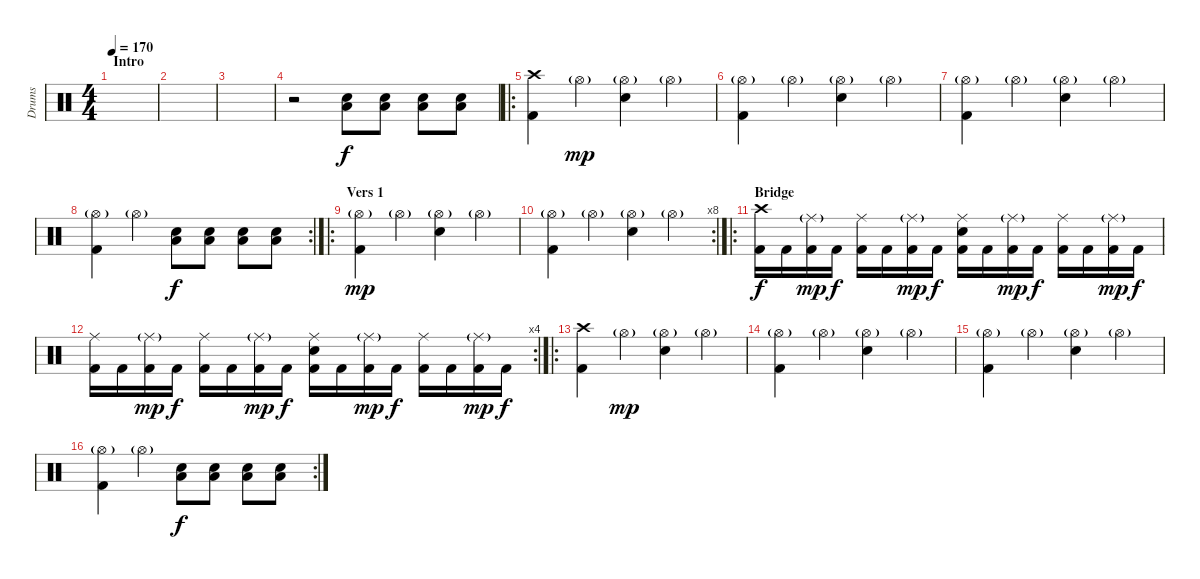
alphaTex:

\track ("Drums" "Drums") {instrument percussion}
\staff {score}
\articulation defaults
\ts (4 4)
\section ("" "Intro")
\tempo 170
\clef neutral
\ks c
|
|
|
r.2 ("Electric Snare (hit)" "Low Tom (hit)").8 ("Electric Snare (hit)" "Low Tom (hit)").8 ("Electric Snare (hit)" "Low Tom (hit)").8 ("Electric Snare (hit)" "Low Tom (hit)").8 |
\ro
("Crash high (hit)" "Kick (hit) 2").4 "Hi-Hat (open)"{g}.4{dy mp} ("Hi-Hat (open)"{g} "Electric Snare (hit)").4 "Hi-Hat (open)"{g}.4 |
("Hi-Hat (open)"{g} "Kick (hit) 2").4 "Hi-Hat (open)"{g}.4 ("Hi-Hat (open)"{g} "Electric Snare (hit)").4 "Hi-Hat (open)"{g}.4 |
("Hi-Hat (open)"{g} "Kick (hit) 2").4 "Hi-Hat (open)"{g}.4 ("Hi-Hat (open)"{g} "Electric Snare (hit)").4 "Hi-Hat (open)"{g}.4 |
\rc 2
("Hi-Hat (open)"{g} "Kick (hit) 2").4 "Hi-Hat (open)"{g}.4 ("Electric Snare (hit)" "Low Tom (hit)").8{dy f} ("Electric Snare (hit)" "Low Tom (hit)").8 ("Electric Snare (hit)" "Low Tom (hit)").8 ("Electric Snare (hit)" "Low Tom (hit)").8 |
\ro
\section ("" "Vers 1")
("Hi-Hat (open)"{g} "Kick (hit) 2").4{dy mp} "Hi-Hat (open)"{g}.4 ("Hi-Hat (open)"{g} "Electric Snare (hit)").4 "Hi-Hat (open)"{g}.4 |
\rc 8
("Hi-Hat (open)"{g} "Kick (hit) 2").4 "Hi-Hat (open)"{g}.4 ("Hi-Hat (open)"{g} "Electric Snare (hit)").4 "Hi-Hat (open)"{g}.4 |
\ro
\section ("" "Bridge")
("Crash high (hit)" "Kick (hit) 2").16{dy f} "Kick (hit) 2".16 ("Ride (middle)"{g} "Kick (hit) 2").16{dy mp} "Kick (hit) 2".16{dy f} ("Ride (middle)" "Kick (hit) 2").16 "Kick (hit) 2".16 ("Ride (middle)"{g} "Kick (hit) 2").16{dy mp} "Kick (hit) 2".16{dy f} ("Ride (middle)" "Electric Snare (hit)" "Kick (hit) 2").16 "Kick (hit) 2".16 ("Ride (middle)"{g} "Kick (hit) 2").16{dy mp} "Kick (hit) 2".16{dy f} ("Ride (middle)" "Kick (hit) 2").16 "Kick (hit) 2".16 ("Ride (middle)"{g} "Kick (hit) 2").16{dy mp} "Kick (hit) 2".16{dy f} |
\rc 4
("Ride (middle)" "Kick (hit) 2").16 "Kick (hit) 2".16 ("Ride (middle)"{g} "Kick (hit) 2").16{dy mp} "Kick (hit) 2".16{dy f} ("Ride (middle)" "Kick (hit) 2").16 "Kick (hit) 2".16 ("Ride (middle)"{g} "Kick (hit) 2").16{dy mp} "Kick (hit) 2".16{dy f} ("Ride (middle)" "Electric Snare (hit)" "Kick (hit) 2").16 "Kick (hit) 2".16 ("Ride (middle)"{g} "Kick (hit) 2").16{dy mp} "Kick (hit) 2".16{dy f} ("Ride (middle)" "Kick (hit) 2").16 "Kick (hit) 2".16 ("Ride (middle)"{g} "Kick (hit) 2").16{dy mp} "Kick (hit) 2".16{dy f} |
\ro
("Crash high (hit)" "Kick (hit) 2").4 "Hi-Hat (open)"{g}.4{dy mp} ("Hi-Hat (open)"{g} "Electric Snare (hit)").4 "Hi-Hat (open)"{g}.4 |
("Hi-Hat (open)"{g} "Kick (hit) 2").4 "Hi-Hat (open)"{g}.4 ("Hi-Hat (open)"{g} "Electric Snare (hit)").4 "Hi-Hat (open)"{g}.4 |
("Hi-Hat (open)"{g} "Kick (hit) 2").4 "Hi-Hat (open)"{g}.4 ("Hi-Hat (open)"{g} "Electric Snare (hit)").4 "Hi-Hat (open)"{g}.4 |
\rc 2
("Hi-Hat (open)"{g} "Kick (hit) 2").4 "Hi-Hat (open)"{g}.4 ("Electric Snare (hit)" "Low Tom (hit)").8{dy f} ("Electric Snare (hit)" "Low Tom (hit)").8 ("Electric Snare (hit)" "Low Tom (hit)").8 ("Electric Snare (hit)" "Low Tom (hit)").8
